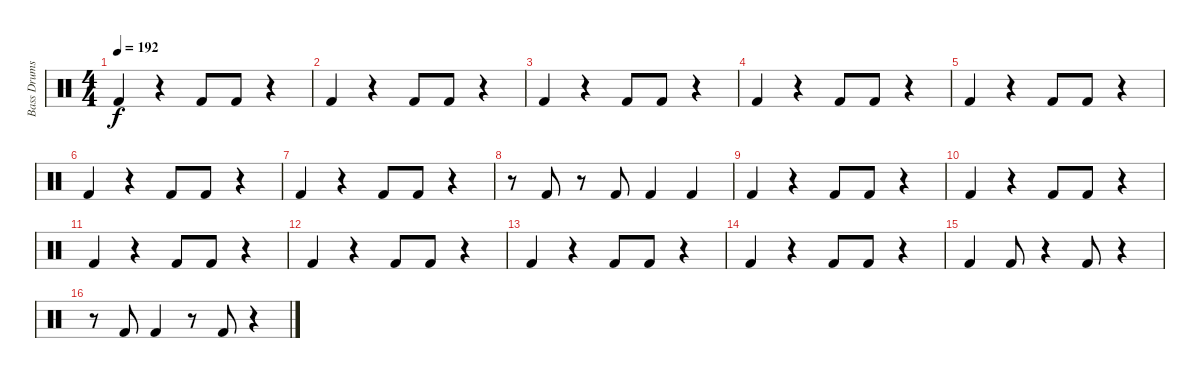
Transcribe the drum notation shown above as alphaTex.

\track ("Bass Drums" "Bass Drums") {instrument percussion}
\staff {score}
\articulation defaults
\ts (4 4)
\tempo 192
\clef neutral
\ks c "Kick (hit) 2".4{dy f}
r.4 "Kick (hit) 2".8 "Kick (hit) 2".8 r.4 |
"Kick (hit) 2".4 r.4 "Kick (hit) 2".8 "Kick (hit) 2".8 r.4 |
"Kick (hit) 2".4 r.4 "Kick (hit) 2".8 "Kick (hit) 2".8 r.4 |
"Kick (hit) 2".4 r.4 "Kick (hit) 2".8 "Kick (hit) 2".8 r.4 |
"Kick (hit) 2".4 r.4 "Kick (hit) 2".8 "Kick (hit) 2".8 r.4 |
"Kick (hit) 2".4 r.4 "Kick (hit) 2".8 "Kick (hit) 2".8 r.4 |
"Kick (hit) 2".4 r.4 "Kick (hit) 2".8 "Kick (hit) 2".8 r.4 |
r.8 "Kick (hit) 2".8 r.8 "Kick (hit) 2".8 "Kick (hit) 2".4 "Kick (hit) 2".4 |
"Kick (hit) 2".4 r.4 "Kick (hit) 2".8 "Kick (hit) 2".8 r.4 |
"Kick (hit) 2".4 r.4 "Kick (hit) 2".8 "Kick (hit) 2".8 r.4 |
"Kick (hit) 2".4 r.4 "Kick (hit) 2".8 "Kick (hit) 2".8 r.4 |
"Kick (hit) 2".4 r.4 "Kick (hit) 2".8 "Kick (hit) 2".8 r.4 |
"Kick (hit) 2".4 r.4 "Kick (hit) 2".8 "Kick (hit) 2".8 r.4 |
"Kick (hit) 2".4 r.4 "Kick (hit) 2".8 "Kick (hit) 2".8 r.4 |
"Kick (hit) 2".4 "Kick (hit) 2".8 r.4 "Kick (hit) 2".8 r.4 |
r.8 "Kick (hit) 2".8 "Kick (hit) 2".4 r.8 "Kick (hit) 2".8 r.4
